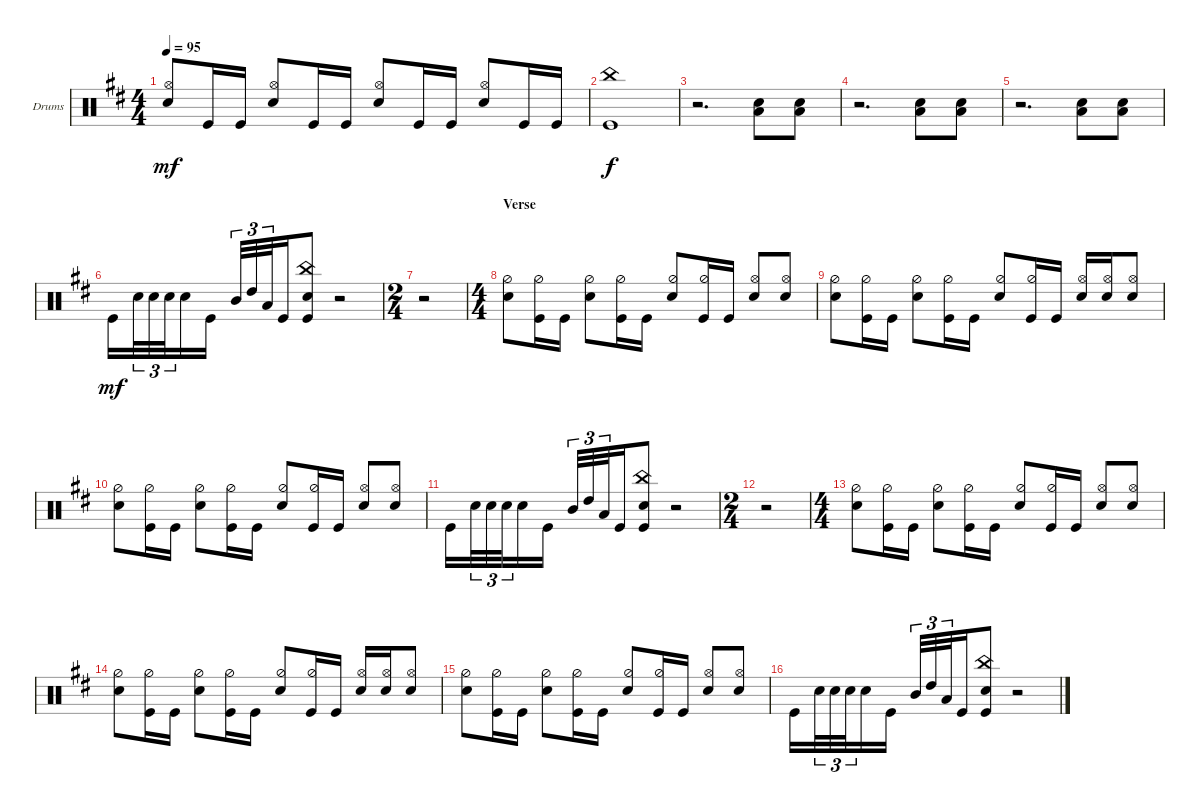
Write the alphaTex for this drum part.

\defaultSystemsLayout 4
\bracketExtendMode groupsimilarinstruments
\firstSystemTrackNameOrientation horizontal
\otherSystemsTrackNameOrientation horizontal
\track ("Drumkit" "Drums") {instrument percussion}
\staff {score}
\articulation defaults
\ts (4 4)
\tempo 95
\clef neutral
\scale
0.333333
\ks d
("Snare (hit) 2" "Hi-Hat (open)").8{dy mf beam invert} "Kick (hit)".16 "Kick (hit)".16 ("Snare (hit) 2" "Hi-Hat (open)").8{beam invert} "Kick (hit)".16 "Kick (hit)".16 ("Snare (hit) 2" "Hi-Hat (open)").8{beam invert} "Kick (hit)".16 "Kick (hit)".16 ("Snare (hit) 2" "Hi-Hat (open)").8{beam invert} "Kick (hit)".16 "Kick (hit)".16 |
\scale
0.333333 ("Kick (hit)" "China (hit)").1{dy f} |
\scale
0.333333 r.2{d} ("Low Tom (hit)" "Snare (hit) 2").8 ("Low Tom (hit)" "Snare (hit) 2").8 |
\scale
0.333333 r.2{d} ("Low Tom (hit)" "Snare (hit) 2").8 ("Low Tom (hit)" "Snare (hit) 2").8 |
\scale
0.333333 r.2{d} ("Low Tom (hit)" "Snare (hit) 2").8 ("Low Tom (hit)" "Snare (hit) 2").8 |
\scale
0.333333 "Kick (hit)".16{dy mf beam merge} "Snare (hit) 2".32{tu (3 2) beam merge} "Snare (hit) 2".32{tu (3 2) beam merge} "Snare (hit) 2".32{tu (3 2) beam merge} "Snare (hit) 2".16{beam merge} "Kick (hit)".16 "Mid Tom (hit)".32{tu (3 2) beam invert beam merge} "High Tom (hit)".32{tu (3 2) beam merge} "Low Tom (hit)".32{tu (3 2) beam merge} "Kick (hit)".16{beam merge} ("Snare (hit) 2" "Kick (hit)" "China (hit)").8 r.2 |
\ts (2 4)
\scale
0.405405 r.2 |
\ts (4 4)
\section ("" "Verse")
\scale
0.405405 ("Snare (hit) 2" "Hi-Hat (half)").8 ("Kick (hit)" "Hi-Hat (half)").16 "Kick (hit)".16 ("Snare (hit) 2" "Hi-Hat (half)").8 ("Kick (hit)" "Hi-Hat (half)").16 "Kick (hit)".16 ("Snare (hit) 2" "Hi-Hat (half)").8 ("Kick (hit)" "Hi-Hat (half)").16 "Kick (hit)".16 ("Snare (hit) 2" "Hi-Hat (open)").8{beam invert} ("Snare (hit) 2" "Hi-Hat (open)").8 |
\scale
0.189189 ("Snare (hit) 2" "Hi-Hat (half)").8 ("Kick (hit)" "Hi-Hat (half)").16 "Kick (hit)".16 ("Snare (hit) 2" "Hi-Hat (half)").8 ("Kick (hit)" "Hi-Hat (half)").16 "Kick (hit)".16 ("Snare (hit) 2" "Hi-Hat (half)").8 ("Kick (hit)" "Hi-Hat (half)").16 "Kick (hit)".16 ("Snare (hit) 2" "Hi-Hat (open)").16{beam invert} ("Snare (hit) 2" "Hi-Hat (open)").16 ("Snare (hit) 2" "Hi-Hat (open)").8 |
\scale
0.241379 ("Snare (hit) 2" "Hi-Hat (half)").8 ("Kick (hit)" "Hi-Hat (half)").16 "Kick (hit)".16 ("Snare (hit) 2" "Hi-Hat (half)").8 ("Kick (hit)" "Hi-Hat (half)").16 "Kick (hit)".16 ("Snare (hit) 2" "Hi-Hat (half)").8 ("Kick (hit)" "Hi-Hat (half)").16 "Kick (hit)".16 ("Snare (hit) 2" "Hi-Hat (open)").8{beam invert} ("Snare (hit) 2" "Hi-Hat (open)").8 |
\scale
0.241379 "Kick (hit)".16{beam merge} "Snare (hit) 2".32{tu (3 2) beam merge} "Snare (hit) 2".32{tu (3 2) beam merge} "Snare (hit) 2".32{tu (3 2) beam merge} "Snare (hit) 2".16{beam merge} "Kick (hit)".16 "Mid Tom (hit)".32{tu (3 2) beam invert beam merge} "High Tom (hit)".32{tu (3 2) beam merge} "Low Tom (hit)".32{tu (3 2) beam merge} "Kick (hit)".16{beam merge} ("Snare (hit) 2" "Kick (hit)" "China (hit)").8 r.2 |
\ts (2 4)
\scale
0.517241 r.2 |
\ts (4 4)
\scale
0.517241 ("Snare (hit) 2" "Hi-Hat (half)").8 ("Kick (hit)" "Hi-Hat (half)").16 "Kick (hit)".16 ("Snare (hit) 2" "Hi-Hat (half)").8 ("Kick (hit)" "Hi-Hat (half)").16 "Kick (hit)".16 ("Snare (hit) 2" "Hi-Hat (half)").8 ("Kick (hit)" "Hi-Hat (half)").16 "Kick (hit)".16 ("Snare (hit) 2" "Hi-Hat (open)").8{beam invert} ("Snare (hit) 2" "Hi-Hat (open)").8 |
\scale
0.241379 ("Snare (hit) 2" "Hi-Hat (half)").8 ("Kick (hit)" "Hi-Hat (half)").16 "Kick (hit)".16 ("Snare (hit) 2" "Hi-Hat (half)").8 ("Kick (hit)" "Hi-Hat (half)").16 "Kick (hit)".16 ("Snare (hit) 2" "Hi-Hat (half)").8 ("Kick (hit)" "Hi-Hat (half)").16 "Kick (hit)".16 ("Snare (hit) 2" "Hi-Hat (open)").16{beam invert} ("Snare (hit) 2" "Hi-Hat (open)").16 ("Snare (hit) 2" "Hi-Hat (open)").8 |
\scale
0.241379 ("Snare (hit) 2" "Hi-Hat (half)").8 ("Kick (hit)" "Hi-Hat (half)").16 "Kick (hit)".16 ("Snare (hit) 2" "Hi-Hat (half)").8 ("Kick (hit)" "Hi-Hat (half)").16 "Kick (hit)".16 ("Snare (hit) 2" "Hi-Hat (half)").8 ("Kick (hit)" "Hi-Hat (half)").16 "Kick (hit)".16 ("Snare (hit) 2" "Hi-Hat (open)").8{beam invert} ("Snare (hit) 2" "Hi-Hat (open)").8 |
\scale
0.189189 "Kick (hit)".16{beam merge} "Snare (hit) 2".32{tu (3 2) beam merge} "Snare (hit) 2".32{tu (3 2) beam merge} "Snare (hit) 2".32{tu (3 2) beam merge} "Snare (hit) 2".16{beam merge} "Kick (hit)".16 "Mid Tom (hit)".32{tu (3 2) beam invert beam merge} "High Tom (hit)".32{tu (3 2) beam merge} "Low Tom (hit)".32{tu (3 2) beam merge} "Kick (hit)".16{beam merge} ("Snare (hit) 2" "Kick (hit)" "China (hit)").8 r.2
